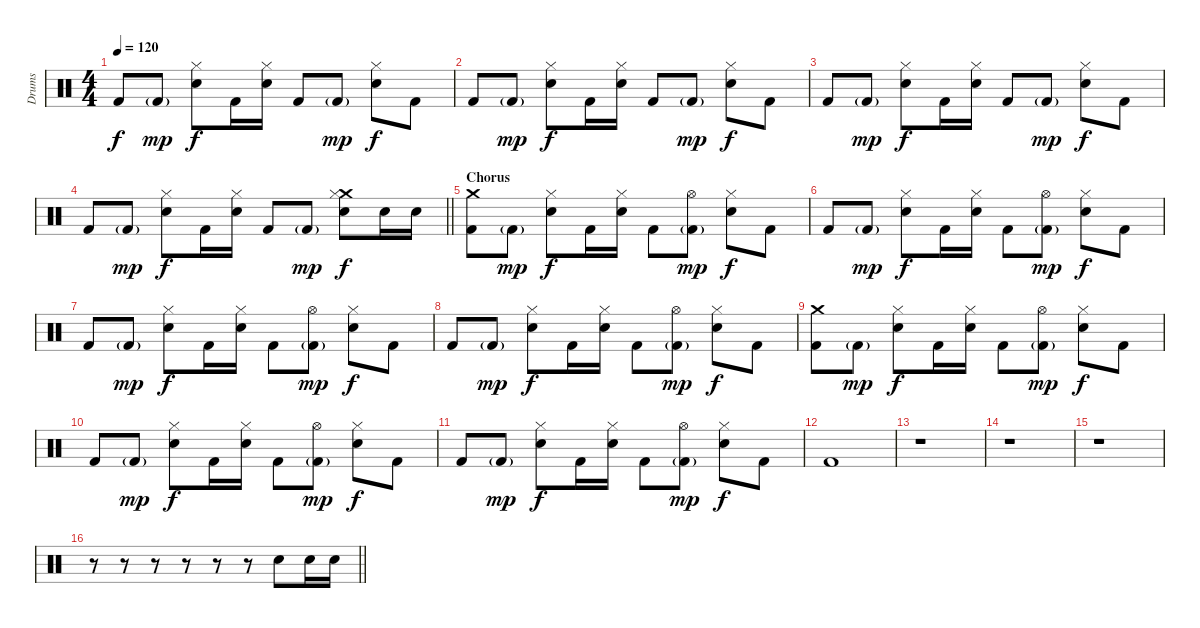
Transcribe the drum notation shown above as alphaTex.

\track ("Drums" "Drums") {instrument percussion}
\staff {score}
\articulation defaults
\ts (4 4)
\tempo 120
\clef neutral
\ks c "Kick (hit) 2".8{dy f} "Kick (hit) 2"{g}.8{dy mp}
("Hi-Hat (closed)" "Snare (hit) 2").8{dy f} "Kick (hit) 2".16 ("Hi-Hat (closed)" "Snare (hit) 2").16 "Kick (hit) 2".8 "Kick (hit) 2"{g}.8{dy mp} ("Hi-Hat (closed)" "Snare (hit) 2").8{dy f} "Kick (hit) 2".8 |
"Kick (hit) 2".8 "Kick (hit) 2"{g}.8{dy mp} ("Hi-Hat (closed)" "Snare (hit) 2").8{dy f} "Kick (hit) 2".16 ("Hi-Hat (closed)" "Snare (hit) 2").16 "Kick (hit) 2".8 "Kick (hit) 2"{g}.8{dy mp} ("Hi-Hat (closed)" "Snare (hit) 2").8{dy f} "Kick (hit) 2".8 |
"Kick (hit) 2".8 "Kick (hit) 2"{g}.8{dy mp} ("Hi-Hat (closed)" "Snare (hit) 2").8{dy f} "Kick (hit) 2".16 ("Hi-Hat (closed)" "Snare (hit) 2").16 "Kick (hit) 2".8 "Kick (hit) 2"{g}.8{dy mp} ("Hi-Hat (closed)" "Snare (hit) 2").8{dy f} "Kick (hit) 2".8 |
\barLineRight lightlight "Kick (hit) 2".8 "Kick (hit) 2"{g}.8{dy mp}
("Hi-Hat (closed)" "Snare (hit) 2").8{dy f} "Kick (hit) 2".16 ("Hi-Hat (closed)" "Snare (hit) 2").16 "Kick (hit) 2".8 "Kick (hit) 2"{g}.8{dy mp} ("Crash medium (hit)" "Hi-Hat (closed)" "Snare (hit) 2").8{dy f} "Snare (hit) 2".16 "Snare (hit) 2".16 |
\section ("" "Chorus")
("Crash medium (hit)" "Kick (hit) 2").8 "Kick (hit) 2"{g}.8{dy mp} ("Hi-Hat (closed)" "Snare (hit) 2").8{dy f} "Kick (hit) 2".16 ("Hi-Hat (closed)" "Snare (hit) 2").16 "Kick (hit) 2".8 ("Hi-Hat (open)" "Kick (hit) 2"{g}).8{dy mp} ("Hi-Hat (closed)" "Snare (hit) 2").8{dy f} "Kick (hit) 2".8 |
"Kick (hit) 2".8 "Kick (hit) 2"{g}.8{dy mp} ("Hi-Hat (closed)" "Snare (hit) 2").8{dy f} "Kick (hit) 2".16 ("Hi-Hat (closed)" "Snare (hit) 2").16 "Kick (hit) 2".8 ("Hi-Hat (open)" "Kick (hit) 2"{g}).8{dy mp} ("Hi-Hat (closed)" "Snare (hit) 2").8{dy f} "Kick (hit) 2".8 |
"Kick (hit) 2".8 "Kick (hit) 2"{g}.8{dy mp} ("Hi-Hat (closed)" "Snare (hit) 2").8{dy f} "Kick (hit) 2".16 ("Hi-Hat (closed)" "Snare (hit) 2").16 "Kick (hit) 2".8 ("Hi-Hat (open)" "Kick (hit) 2"{g}).8{dy mp} ("Hi-Hat (closed)" "Snare (hit) 2").8{dy f} "Kick (hit) 2".8 |
"Kick (hit) 2".8 "Kick (hit) 2"{g}.8{dy mp} ("Hi-Hat (closed)" "Snare (hit) 2").8{dy f} "Kick (hit) 2".16 ("Hi-Hat (closed)" "Snare (hit) 2").16 "Kick (hit) 2".8 ("Hi-Hat (open)" "Kick (hit) 2"{g}).8{dy mp} ("Hi-Hat (closed)" "Snare (hit) 2").8{dy f} "Kick (hit) 2".8 |
("Crash medium (hit)" "Kick (hit) 2").8 "Kick (hit) 2"{g}.8{dy mp} ("Hi-Hat (closed)" "Snare (hit) 2").8{dy f} "Kick (hit) 2".16 ("Hi-Hat (closed)" "Snare (hit) 2").16 "Kick (hit) 2".8 ("Hi-Hat (open)" "Kick (hit) 2"{g}).8{dy mp} ("Hi-Hat (closed)" "Snare (hit) 2").8{dy f} "Kick (hit) 2".8 |
"Kick (hit) 2".8 "Kick (hit) 2"{g}.8{dy mp} ("Hi-Hat (closed)" "Snare (hit) 2").8{dy f} "Kick (hit) 2".16 ("Hi-Hat (closed)" "Snare (hit) 2").16 "Kick (hit) 2".8 ("Hi-Hat (open)" "Kick (hit) 2"{g}).8{dy mp} ("Hi-Hat (closed)" "Snare (hit) 2").8{dy f} "Kick (hit) 2".8 |
"Kick (hit) 2".8 "Kick (hit) 2"{g}.8{dy mp} ("Hi-Hat (closed)" "Snare (hit) 2").8{dy f} "Kick (hit) 2".16 ("Hi-Hat (closed)" "Snare (hit) 2").16 "Kick (hit) 2".8 ("Hi-Hat (open)" "Kick (hit) 2"{g}).8{dy mp} ("Hi-Hat (closed)" "Snare (hit) 2").8{dy f} "Kick (hit) 2".8 |
"Kick (hit) 2".1 |
r.1 |
r.1 |
r.1 |
\barLineRight lightlight
r.8 r.8 r.8 r.8 r.8 r.8 "Snare (hit) 2".8 "Snare (hit) 2".16 "Snare (hit) 2".16
